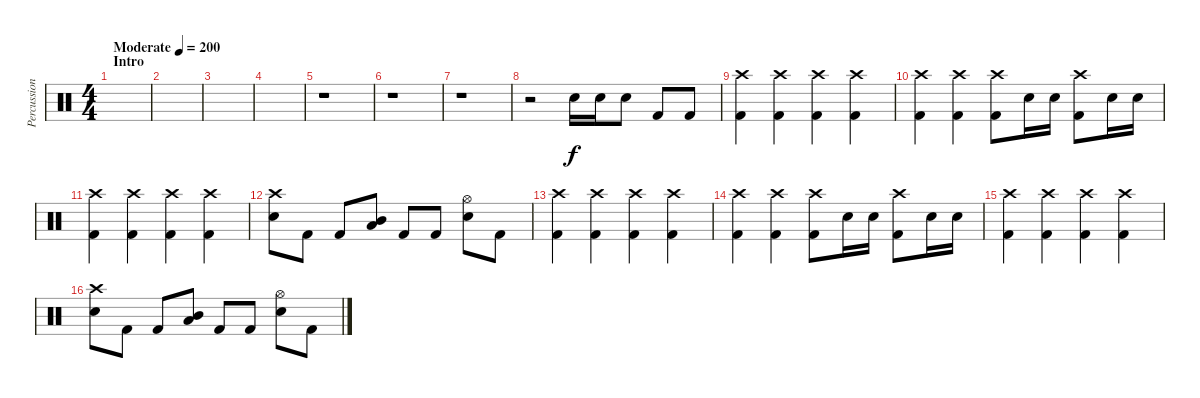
\track ("Percussion" "Percussion") {instrument percussion}
\staff {score}
\articulation defaults
\ts (4 4)
\section ("" "Intro")
\tempo (200 "Moderate")
\clef neutral
\ks c
|
|
|
|
r.1 |
r.1 |
r.1 |
r.2 "Electric Snare (hit)".16 "Electric Snare (hit)".16 "Electric Snare (hit)".8 "Kick (hit) 2".8 "Kick (hit) 2".8 |
("Crash high (hit)" "Kick (hit) 2").4 ("Crash high (hit)" "Kick (hit) 2").4 ("Crash high (hit)" "Kick (hit) 2").4 ("Crash high (hit)" "Kick (hit) 2").4 |
("Crash high (hit)" "Kick (hit) 2").4 ("Crash high (hit)" "Kick (hit) 2").4 ("Crash high (hit)" "Kick (hit) 2").8 "Electric Snare (hit)".16 "Electric Snare (hit)".16 ("Crash high (hit)" "Kick (hit) 2").8 "Electric Snare (hit)".16 "Electric Snare (hit)".16 |
("Crash high (hit)" "Kick (hit) 2").4 ("Crash high (hit)" "Kick (hit) 2").4 ("Crash high (hit)" "Kick (hit) 2").4 ("Crash high (hit)" "Kick (hit) 2").4 |
("Crash high (hit)" "Electric Snare (hit)").8 "Kick (hit) 2".8 "Kick (hit) 2".8 ("Mid Tom (hit)" "Low Tom (hit)").8 "Kick (hit) 2".8 "Kick (hit) 2".8 ("Hi-Hat (open)" "Electric Snare (hit)").8 "Kick (hit) 2".8 |
("Crash high (hit)" "Kick (hit) 2").4 ("Crash high (hit)" "Kick (hit) 2").4 ("Crash high (hit)" "Kick (hit) 2").4 ("Crash high (hit)" "Kick (hit) 2").4 |
("Crash high (hit)" "Kick (hit) 2").4 ("Crash high (hit)" "Kick (hit) 2").4 ("Crash high (hit)" "Kick (hit) 2").8 "Electric Snare (hit)".16 "Electric Snare (hit)".16 ("Crash high (hit)" "Kick (hit) 2").8 "Electric Snare (hit)".16 "Electric Snare (hit)".16 |
("Crash high (hit)" "Kick (hit) 2").4 ("Crash high (hit)" "Kick (hit) 2").4 ("Crash high (hit)" "Kick (hit) 2").4 ("Crash high (hit)" "Kick (hit) 2").4 |
("Crash high (hit)" "Electric Snare (hit)").8 "Kick (hit) 2".8 "Kick (hit) 2".8 ("Mid Tom (hit)" "Low Tom (hit)").8 "Kick (hit) 2".8 "Kick (hit) 2".8 ("Hi-Hat (open)" "Electric Snare (hit)").8 "Kick (hit) 2".8
